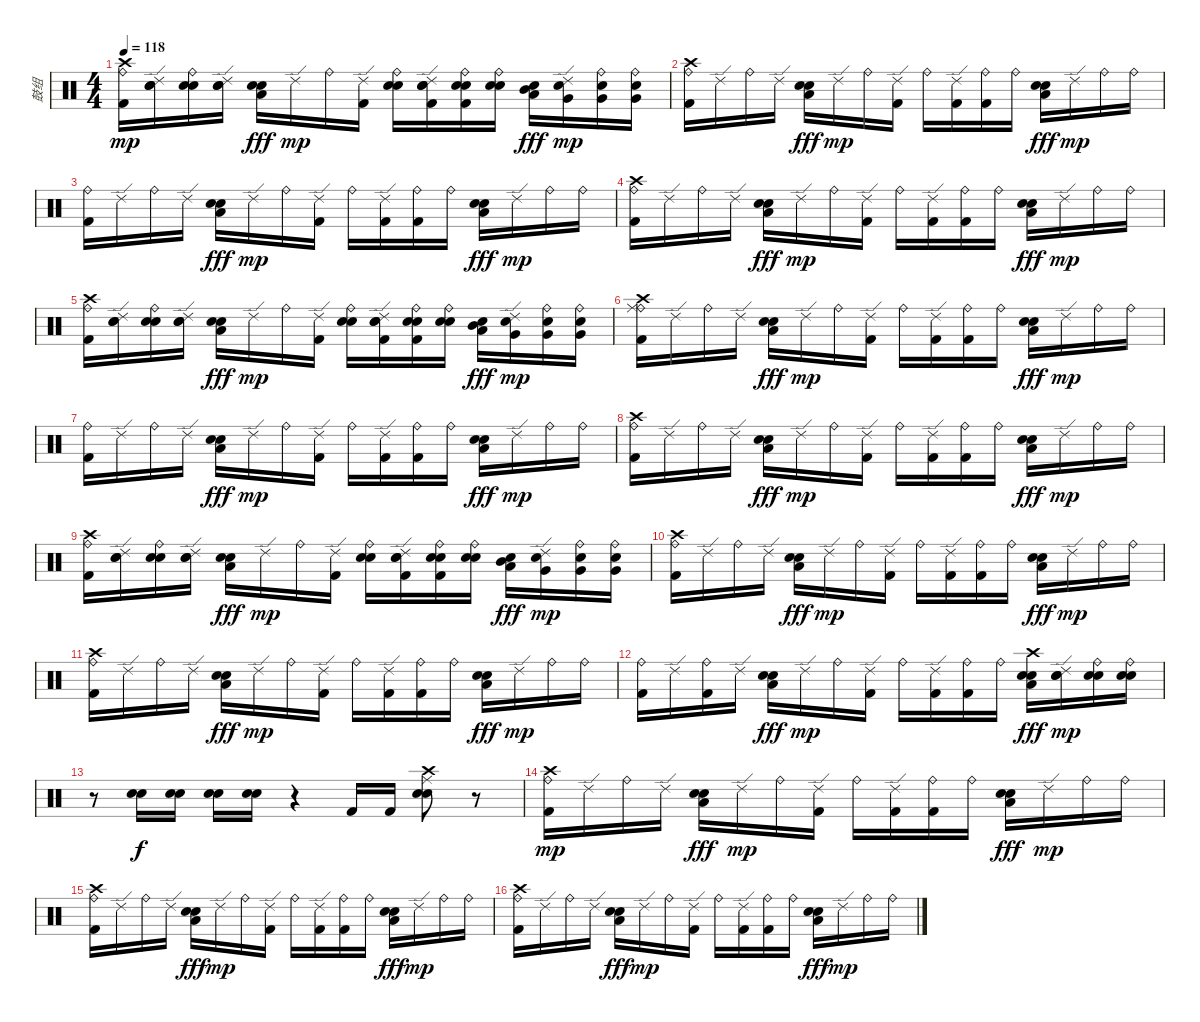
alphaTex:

\track ("鼓组" "鼓组") {instrument percussion}
\staff {score}
\articulation defaults
\ts (4 4)
\tempo 118
\clef neutral
\ks c
("Ride (bell)" "Crash high (hit)" "Kick (hit) 2").16{dy mp} ("Ride (edge) 2" "Snare (hit) 2" "Electric Snare (hit)").16 ("Ride (bell)" "Snare (hit) 2" "Electric Snare (hit)").16 ("Ride (edge) 2" "Snare (hit) 2" "Electric Snare (hit)").16 ("Low Tom (hit)" "Snare (hit) 2" "Electric Snare (hit)").16{dy fff} "Ride (edge) 2".16{dy mp} "Ride (bell)".16 ("Ride (edge) 2" "Kick (hit) 2").16 ("Ride (bell)" "Electric Snare (hit)" "Snare (hit) 2").16 ("Ride (edge) 2" "Electric Snare (hit)" "Snare (hit) 2" "Kick (hit) 2").16 ("Ride (bell)" "Electric Snare (hit)" "Snare (hit) 2" "Kick (hit) 2").16 ("Ride (bell)" "Electric Snare (hit)" "Snare (hit) 2").16 ("Low Tom (hit)" "Mid Tom (hit)" "Snare (hit) 2").16{dy fff} ("Ride (edge) 2" "Very Low Tom (hit)" "Snare (hit) 2").16{dy mp} ("Ride (bell)" "Very Low Tom (hit)" "Snare (hit) 2").16 ("Ride (bell)" "Very Low Tom (hit)" "Snare (hit) 2").16 |
("Ride (bell)" "Crash high (hit)" "Kick (hit) 2").16 "Ride (edge) 2".16 "Ride (bell)".16 "Ride (edge) 2".16 ("Low Tom (hit)" "Snare (hit) 2" "Electric Snare (hit)").16{dy fff} "Ride (edge) 2".16{dy mp} "Ride (bell)".16 ("Ride (edge) 2" "Kick (hit) 2").16 "Ride (bell)".16 ("Ride (edge) 2" "Kick (hit) 2").16 ("Ride (bell)" "Kick (hit) 2").16 "Ride (bell)".16 ("Low Tom (hit)" "Electric Snare (hit)" "Snare (hit) 2").16{dy fff} "Ride (edge) 2".16{dy mp} "Ride (bell)".16 "Ride (bell)".16 |
("Ride (bell)" "Kick (hit) 2").16 "Ride (edge) 2".16 "Ride (bell)".16 "Ride (edge) 2".16 ("Low Tom (hit)" "Snare (hit) 2" "Electric Snare (hit)").16{dy fff} "Ride (edge) 2".16{dy mp} "Ride (bell)".16 ("Ride (edge) 2" "Kick (hit) 2").16 "Ride (bell)".16 ("Ride (edge) 2" "Kick (hit) 2").16 ("Ride (bell)" "Kick (hit) 2").16 "Ride (bell)".16 ("Low Tom (hit)" "Electric Snare (hit)" "Snare (hit) 2").16{dy fff} "Ride (edge) 2".16{dy mp} "Ride (bell)".16 "Ride (bell)".16 |
("Ride (bell)" "Crash high (hit)" "Kick (hit) 2").16 "Ride (edge) 2".16 "Ride (bell)".16 "Ride (edge) 2".16 ("Low Tom (hit)" "Snare (hit) 2" "Electric Snare (hit)").16{dy fff} "Ride (edge) 2".16{dy mp} "Ride (bell)".16 ("Ride (edge) 2" "Kick (hit) 2").16 "Ride (bell)".16 ("Ride (edge) 2" "Kick (hit) 2").16 ("Ride (bell)" "Kick (hit) 2").16 "Ride (bell)".16 ("Low Tom (hit)" "Electric Snare (hit)" "Snare (hit) 2").16{dy fff} "Ride (edge) 2".16{dy mp} "Ride (bell)".16 "Ride (bell)".16 |
("Ride (bell)" "Crash high (hit)" "Kick (hit) 2").16 ("Ride (edge) 2" "Snare (hit) 2" "Electric Snare (hit)").16 ("Ride (bell)" "Snare (hit) 2" "Electric Snare (hit)").16 ("Ride (edge) 2" "Snare (hit) 2" "Electric Snare (hit)").16 ("Low Tom (hit)" "Snare (hit) 2" "Electric Snare (hit)").16{dy fff} "Ride (edge) 2".16{dy mp} "Ride (bell)".16 ("Ride (edge) 2" "Kick (hit) 2").16 ("Ride (bell)" "Electric Snare (hit)" "Snare (hit) 2").16 ("Ride (edge) 2" "Electric Snare (hit)" "Snare (hit) 2" "Kick (hit) 2").16 ("Ride (bell)" "Electric Snare (hit)" "Snare (hit) 2" "Kick (hit) 2").16 ("Ride (bell)" "Electric Snare (hit)" "Snare (hit) 2").16 ("Low Tom (hit)" "Mid Tom (hit)" "Snare (hit) 2").16{dy fff} ("Ride (edge) 2" "Very Low Tom (hit)" "Snare (hit) 2").16{dy mp} ("Ride (bell)" "Very Low Tom (hit)" "Snare (hit) 2").16 ("Ride (bell)" "Very Low Tom (hit)" "Snare (hit) 2").16 |
("Ride (bell)" "Ride (middle)" "Crash high (hit)" "Kick (hit) 2").16 "Ride (edge) 2".16 "Ride (bell)".16 "Ride (edge) 2".16 ("Low Tom (hit)" "Snare (hit) 2" "Electric Snare (hit)").16{dy fff} "Ride (edge) 2".16{dy mp} "Ride (bell)".16 ("Ride (edge) 2" "Kick (hit) 2").16 "Ride (bell)".16 ("Ride (edge) 2" "Kick (hit) 2").16 ("Ride (bell)" "Kick (hit) 2").16 "Ride (bell)".16 ("Low Tom (hit)" "Electric Snare (hit)" "Snare (hit) 2").16{dy fff} "Ride (edge) 2".16{dy mp} "Ride (bell)".16 "Ride (bell)".16 |
("Ride (bell)" "Kick (hit) 2").16 "Ride (edge) 2".16 "Ride (bell)".16 "Ride (edge) 2".16 ("Low Tom (hit)" "Snare (hit) 2" "Electric Snare (hit)").16{dy fff} "Ride (edge) 2".16{dy mp} "Ride (bell)".16 ("Ride (edge) 2" "Kick (hit) 2").16 "Ride (bell)".16 ("Ride (edge) 2" "Kick (hit) 2").16 ("Ride (bell)" "Kick (hit) 2").16 "Ride (bell)".16 ("Low Tom (hit)" "Electric Snare (hit)" "Snare (hit) 2").16{dy fff} "Ride (edge) 2".16{dy mp} "Ride (bell)".16 "Ride (bell)".16 |
("Ride (bell)" "Crash high (hit)" "Kick (hit) 2").16 "Ride (edge) 2".16 "Ride (bell)".16 "Ride (edge) 2".16 ("Low Tom (hit)" "Snare (hit) 2" "Electric Snare (hit)").16{dy fff} "Ride (edge) 2".16{dy mp} "Ride (bell)".16 ("Ride (edge) 2" "Kick (hit) 2").16 "Ride (bell)".16 ("Ride (edge) 2" "Kick (hit) 2").16 ("Ride (bell)" "Kick (hit) 2").16 "Ride (bell)".16 ("Low Tom (hit)" "Electric Snare (hit)" "Snare (hit) 2").16{dy fff} "Ride (edge) 2".16{dy mp} "Ride (bell)".16 "Ride (bell)".16 |
("Ride (bell)" "Crash high (hit)" "Kick (hit) 2").16 ("Ride (edge) 2" "Snare (hit) 2" "Electric Snare (hit)").16 ("Ride (bell)" "Snare (hit) 2" "Electric Snare (hit)").16 ("Ride (edge) 2" "Snare (hit) 2" "Electric Snare (hit)").16 ("Low Tom (hit)" "Snare (hit) 2" "Electric Snare (hit)").16{dy fff} "Ride (edge) 2".16{dy mp} "Ride (bell)".16 ("Ride (edge) 2" "Kick (hit) 2").16 ("Ride (bell)" "Electric Snare (hit)" "Snare (hit) 2").16 ("Ride (edge) 2" "Electric Snare (hit)" "Snare (hit) 2" "Kick (hit) 2").16 ("Ride (bell)" "Electric Snare (hit)" "Snare (hit) 2" "Kick (hit) 2").16 ("Ride (bell)" "Electric Snare (hit)" "Snare (hit) 2").16 ("Low Tom (hit)" "Mid Tom (hit)" "Snare (hit) 2").16{dy fff} ("Ride (edge) 2" "Very Low Tom (hit)" "Snare (hit) 2").16{dy mp} ("Ride (bell)" "Very Low Tom (hit)" "Snare (hit) 2").16 ("Ride (bell)" "Very Low Tom (hit)" "Snare (hit) 2").16 |
("Ride (bell)" "Crash high (hit)" "Kick (hit) 2").16 "Ride (edge) 2".16 "Ride (bell)".16 "Ride (edge) 2".16 ("Low Tom (hit)" "Snare (hit) 2" "Electric Snare (hit)").16{dy fff} "Ride (edge) 2".16{dy mp} "Ride (bell)".16 ("Ride (edge) 2" "Kick (hit) 2").16 "Ride (bell)".16 ("Ride (edge) 2" "Kick (hit) 2").16 ("Ride (bell)" "Kick (hit) 2").16 "Ride (bell)".16 ("Low Tom (hit)" "Electric Snare (hit)" "Snare (hit) 2").16{dy fff} "Ride (edge) 2".16{dy mp} "Ride (bell)".16 "Ride (bell)".16 |
("Ride (bell)" "Crash high (hit)" "Kick (hit) 2").16 "Ride (edge) 2".16 "Ride (bell)".16 "Ride (edge) 2".16 ("Low Tom (hit)" "Snare (hit) 2" "Electric Snare (hit)").16{dy fff} "Ride (edge) 2".16{dy mp} "Ride (bell)".16 ("Ride (edge) 2" "Kick (hit) 2").16 "Ride (bell)".16 ("Ride (edge) 2" "Kick (hit) 2").16 ("Ride (bell)" "Kick (hit) 2").16 "Ride (bell)".16 ("Low Tom (hit)" "Electric Snare (hit)" "Snare (hit) 2").16{dy fff} "Ride (edge) 2".16{dy mp} "Ride (bell)".16 "Ride (bell)".16 |
("Ride (bell)" "Kick (hit) 2").16 "Ride (edge) 2".16 ("Ride (bell)" "Kick (hit) 2").16 "Ride (edge) 2".16 ("Low Tom (hit)" "Snare (hit) 2" "Electric Snare (hit)").16{dy fff} "Ride (edge) 2".16{dy mp} "Ride (bell)".16 ("Ride (edge) 2" "Kick (hit) 2").16 "Ride (bell)".16 ("Ride (edge) 2" "Kick (hit) 2").16 ("Ride (bell)" "Kick (hit) 2").16 "Ride (bell)".16 ("Low Tom (hit)" "Electric Snare (hit)" "Snare (hit) 2" "Crash high (hit)").16{dy fff} ("Ride (edge) 2" "Electric Snare (hit)" "Snare (hit) 2").16{dy mp} ("Ride (bell)" "Electric Snare (hit)" "Snare (hit) 2").16 ("Ride (bell)" "Electric Snare (hit)" "Snare (hit) 2").16 |
r.8 ("Electric Snare (hit)" "Snare (hit) 2").16{dy f} ("Electric Snare (hit)" "Snare (hit) 2").16 ("Electric Snare (hit)" "Snare (hit) 2").16 ("Electric Snare (hit)" "Snare (hit) 2").16 r.4 "Kick (hit) 2".16 "Kick (hit) 2".16 ("Ride (middle)" "Crash high (hit)" "Electric Snare (hit)" "Snare (hit) 2").8 r.8 |
("Ride (bell)" "Crash high (hit)" "Kick (hit) 2").16{dy mp} "Ride (edge) 2".16 "Ride (bell)".16 "Ride (edge) 2".16 ("Low Tom (hit)" "Snare (hit) 2" "Electric Snare (hit)").16{dy fff} "Ride (edge) 2".16{dy mp} "Ride (bell)".16 ("Ride (edge) 2" "Kick (hit) 2").16 "Ride (bell)".16 ("Ride (edge) 2" "Kick (hit) 2").16 ("Ride (bell)" "Kick (hit) 2").16 "Ride (bell)".16 ("Low Tom (hit)" "Electric Snare (hit)" "Snare (hit) 2").16{dy fff} "Ride (edge) 2".16{dy mp} "Ride (bell)".16 "Ride (bell)".16 |
("Ride (bell)" "Crash high (hit)" "Kick (hit) 2").16 "Ride (edge) 2".16 "Ride (bell)".16 "Ride (edge) 2".16 ("Low Tom (hit)" "Snare (hit) 2" "Electric Snare (hit)").16{dy fff} "Ride (edge) 2".16{dy mp} "Ride (bell)".16 ("Ride (edge) 2" "Kick (hit) 2").16 "Ride (bell)".16 ("Ride (edge) 2" "Kick (hit) 2").16 ("Ride (bell)" "Kick (hit) 2").16 "Ride (bell)".16 ("Low Tom (hit)" "Electric Snare (hit)" "Snare (hit) 2").16{dy fff} "Ride (edge) 2".16{dy mp} "Ride (bell)".16 "Ride (bell)".16 |
("Ride (bell)" "Crash high (hit)" "Kick (hit) 2").16 "Ride (edge) 2".16 "Ride (bell)".16 "Ride (edge) 2".16 ("Low Tom (hit)" "Snare (hit) 2" "Electric Snare (hit)").16{dy fff} "Ride (edge) 2".16{dy mp} "Ride (bell)".16 ("Ride (edge) 2" "Kick (hit) 2").16 "Ride (bell)".16 ("Ride (edge) 2" "Kick (hit) 2").16 ("Ride (bell)" "Kick (hit) 2").16 "Ride (bell)".16 ("Low Tom (hit)" "Electric Snare (hit)" "Snare (hit) 2").16{dy fff} "Ride (edge) 2".16{dy mp} "Ride (bell)".16 "Ride (bell)".16
